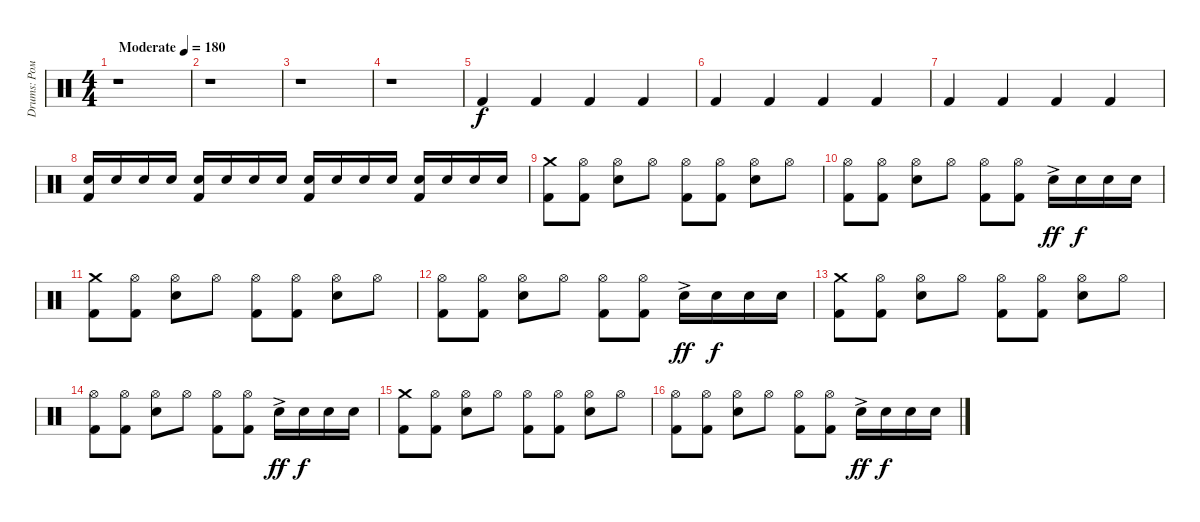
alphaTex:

\track ("Drums: Рома" "Drums: Ром") {instrument percussion}
\staff {score}
\articulation defaults
\ts (4 4)
\tempo (180 "Moderate")
\clef neutral
\ks c
r.1{dy f} |
r.1 |
r.1 |
r.1 |
"Kick (hit) 2".4 "Kick (hit) 2".4 "Kick (hit) 2".4 "Kick (hit) 2".4 |
"Kick (hit) 2".4 "Kick (hit) 2".4 "Kick (hit) 2".4 "Kick (hit) 2".4 |
"Kick (hit) 2".4 "Kick (hit) 2".4 "Kick (hit) 2".4 "Kick (hit) 2".4 |
("Snare (hit) 2" "Kick (hit) 2").16 "Snare (hit) 2".16 "Snare (hit) 2".16 "Snare (hit) 2".16 ("Snare (hit) 2" "Kick (hit) 2").16 "Snare (hit) 2".16 "Snare (hit) 2".16 "Snare (hit) 2".16 ("Snare (hit) 2" "Kick (hit) 2").16 "Snare (hit) 2".16 "Snare (hit) 2".16 "Snare (hit) 2".16 ("Snare (hit) 2" "Kick (hit) 2").16 "Snare (hit) 2".16 "Snare (hit) 2".16 "Snare (hit) 2".16 |
("Crash medium (hit)" "Kick (hit) 2").8 ("Hi-Hat (open)" "Kick (hit) 2").8 ("Hi-Hat (open)" "Snare (hit) 2").8 "Hi-Hat (open)".8 ("Hi-Hat (open)" "Kick (hit) 2").8 ("Hi-Hat (open)" "Kick (hit) 2").8 ("Hi-Hat (open)" "Snare (hit) 2").8 "Hi-Hat (open)".8 |
("Hi-Hat (open)" "Kick (hit) 2").8 ("Hi-Hat (open)" "Kick (hit) 2").8 ("Hi-Hat (open)" "Snare (hit) 2").8 "Hi-Hat (open)".8 ("Hi-Hat (open)" "Kick (hit) 2").8 ("Hi-Hat (open)" "Kick (hit) 2").8 "Snare (hit) 2"{ac}.16{dy ff} "Snare (hit) 2".16{dy f} "Snare (hit) 2".16 "Snare (hit) 2".16 |
("Crash medium (hit)" "Kick (hit) 2").8 ("Hi-Hat (open)" "Kick (hit) 2").8 ("Hi-Hat (open)" "Snare (hit) 2").8 "Hi-Hat (open)".8 ("Hi-Hat (open)" "Kick (hit) 2").8 ("Hi-Hat (open)" "Kick (hit) 2").8 ("Hi-Hat (open)" "Snare (hit) 2").8 "Hi-Hat (open)".8 |
("Hi-Hat (open)" "Kick (hit) 2").8 ("Hi-Hat (open)" "Kick (hit) 2").8 ("Hi-Hat (open)" "Snare (hit) 2").8 "Hi-Hat (open)".8 ("Hi-Hat (open)" "Kick (hit) 2").8 ("Hi-Hat (open)" "Kick (hit) 2").8 "Snare (hit) 2"{ac}.16{dy ff} "Snare (hit) 2".16{dy f} "Snare (hit) 2".16 "Snare (hit) 2".16 |
("Crash medium (hit)" "Kick (hit) 2").8 ("Hi-Hat (open)" "Kick (hit) 2").8 ("Hi-Hat (open)" "Snare (hit) 2").8 "Hi-Hat (open)".8 ("Hi-Hat (open)" "Kick (hit) 2").8 ("Hi-Hat (open)" "Kick (hit) 2").8 ("Hi-Hat (open)" "Snare (hit) 2").8 "Hi-Hat (open)".8 |
("Hi-Hat (open)" "Kick (hit) 2").8 ("Hi-Hat (open)" "Kick (hit) 2").8 ("Hi-Hat (open)" "Snare (hit) 2").8 "Hi-Hat (open)".8 ("Hi-Hat (open)" "Kick (hit) 2").8 ("Hi-Hat (open)" "Kick (hit) 2").8 "Snare (hit) 2"{ac}.16{dy ff} "Snare (hit) 2".16{dy f} "Snare (hit) 2".16 "Snare (hit) 2".16 |
("Crash medium (hit)" "Kick (hit) 2").8 ("Hi-Hat (open)" "Kick (hit) 2").8 ("Hi-Hat (open)" "Snare (hit) 2").8 "Hi-Hat (open)".8 ("Hi-Hat (open)" "Kick (hit) 2").8 ("Hi-Hat (open)" "Kick (hit) 2").8 ("Hi-Hat (open)" "Snare (hit) 2").8 "Hi-Hat (open)".8 |
("Hi-Hat (open)" "Kick (hit) 2").8 ("Hi-Hat (open)" "Kick (hit) 2").8 ("Hi-Hat (open)" "Snare (hit) 2").8 "Hi-Hat (open)".8 ("Hi-Hat (open)" "Kick (hit) 2").8 ("Hi-Hat (open)" "Kick (hit) 2").8 "Snare (hit) 2"{ac}.16{dy ff} "Snare (hit) 2".16{dy f} "Snare (hit) 2".16 "Snare (hit) 2".16
